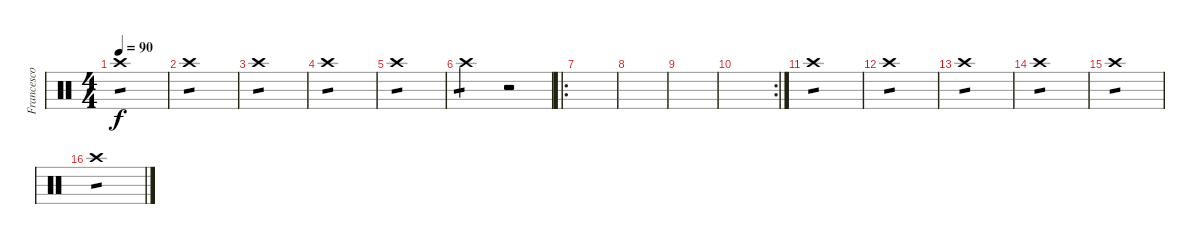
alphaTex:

\track ("Francesco -Franz- Valente" "Francesco ") {instrument percussion}
\staff {score}
\articulation defaults
\ts (4 4)
\tempo 90
\clef neutral
\ks c "Crash high (hit)".1{tp 1 dy f}
|
"Crash high (hit)".1{tp 1} |
"Crash high (hit)".1{tp 1} |
"Crash high (hit)".1{tp 1} |
"Crash high (hit)".1{tp 1} |
"Crash high (hit)".2{tp 1} r.2 |
\ro
|
|
|
\rc 2
|
"Crash high (hit)".1{tp 1} |
"Crash high (hit)".1{tp 1} |
"Crash high (hit)".1{tp 1} |
"Crash high (hit)".1{tp 1} |
"Crash high (hit)".1{tp 1} |
"Crash high (hit)".1{tp 1}
